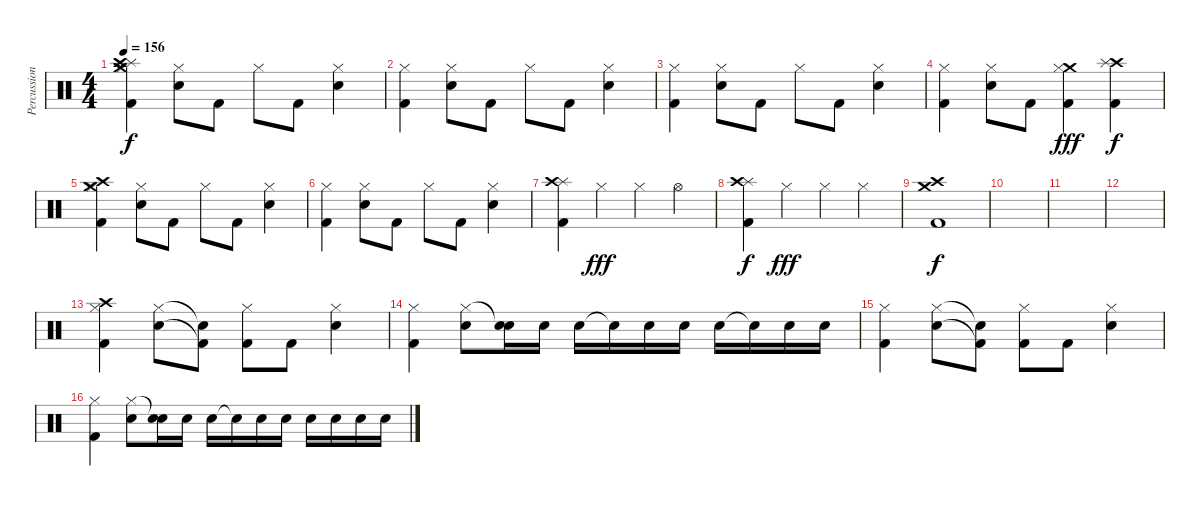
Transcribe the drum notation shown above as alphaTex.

\track ("Percussion" "Percussion") {instrument percussion}
\staff {score}
\articulation defaults
\ts (4 4)
\tempo 156
\clef neutral
\ks c
("Crash medium (hit)" "Splash (hit)" "Hi-Hat (closed)" "Kick (hit) 2" "Crash high (hit)").4{dy f} ("Hi-Hat (closed)" "Electric Snare (hit)").8 "Kick (hit) 2".8 "Hi-Hat (closed)".8 "Kick (hit) 2".8 ("Hi-Hat (closed)" "Electric Snare (hit)").4 |
("Hi-Hat (closed)" "Kick (hit) 2").4 ("Hi-Hat (closed)" "Electric Snare (hit)").8 "Kick (hit) 2".8 "Hi-Hat (closed)".8 "Kick (hit) 2".8 ("Hi-Hat (closed)" "Electric Snare (hit)").4 |
("Hi-Hat (closed)" "Kick (hit) 2").4 ("Hi-Hat (closed)" "Electric Snare (hit)").8 "Kick (hit) 2".8 "Hi-Hat (closed)".8 "Kick (hit) 2".8 ("Hi-Hat (closed)" "Electric Snare (hit)").4 |
("Hi-Hat (closed)" "Kick (hit) 2").4 ("Hi-Hat (closed)" "Electric Snare (hit)").8 "Kick (hit) 2".8 ("Crash medium (hit)" "Hi-Hat (closed)" "Kick (hit) 2").4{dy fff} ("Crash high (hit)" "Splash (hit)" "Kick (hit) 2").4{dy f} |
("Crash medium (hit)" "Hi-Hat (closed)" "Kick (hit) 2" "Crash high (hit)").4 ("Hi-Hat (closed)" "Electric Snare (hit)").8 "Kick (hit) 2".8 "Hi-Hat (closed)".8 "Kick (hit) 2".8 ("Hi-Hat (closed)" "Electric Snare (hit)").4 |
("Hi-Hat (closed)" "Kick (hit) 2").4 ("Hi-Hat (closed)" "Electric Snare (hit)").8 "Kick (hit) 2".8 "Hi-Hat (closed)".8 "Kick (hit) 2".8 ("Hi-Hat (closed)" "Electric Snare (hit)").4 |
("Splash (hit)" "Crash high (hit)" "Kick (hit) 2").4 "Hi-Hat (closed)".4{dy fff} "Hi-Hat (closed)".4 "Hi-Hat (open)".4 |
("Splash (hit)" "Crash high (hit)" "Kick (hit) 2").4{dy f} "Hi-Hat (closed)".4{dy fff} "Hi-Hat (closed)".4 "Hi-Hat (closed)".4 |
("Crash high (hit)" "Kick (hit) 2" "Crash medium (hit)").1{dy f} |
|
|
|
("Crash high (hit)" "Hi-Hat (closed)" "Kick (hit) 2").4 ("Hi-Hat (closed)" "Electric Snare (hit)").8 ("Snare (hit)"{t} "Kick (hit) 2"{t}).8 ("Hi-Hat (closed)" "Kick (hit) 2").8 "Kick (hit) 2".8 ("Hi-Hat (closed)" "Electric Snare (hit)").4 |
("Hi-Hat (closed)" "Kick (hit) 2").4 ("Hi-Hat (closed)" "Electric Snare (hit)").8 ("Snare (hit)"{t} "Electric Snare (hit)").16 "Electric Snare (hit)".16 "Electric Snare (hit)".16 "Electric Snare (hit)"{t}.16 "Electric Snare (hit)".16 "Electric Snare (hit)".16 "Electric Snare (hit)".16 "Electric Snare (hit)"{t}.16 "Electric Snare (hit)".16 "Electric Snare (hit)".16 |
("Hi-Hat (closed)" "Kick (hit) 2").4 ("Hi-Hat (closed)" "Electric Snare (hit)").8 ("Snare (hit)"{t} "Kick (hit) 2"{t}).8 ("Hi-Hat (closed)" "Kick (hit) 2").8 "Kick (hit) 2".8 ("Hi-Hat (closed)" "Electric Snare (hit)").4 |
("Hi-Hat (closed)" "Kick (hit) 2").4 ("Hi-Hat (closed)" "Electric Snare (hit)").8 ("Snare (hit)"{t} "Electric Snare (hit)").16 "Electric Snare (hit)".16 "Electric Snare (hit)".16 "Electric Snare (hit)"{t}.16 "Electric Snare (hit)".16 "Electric Snare (hit)".16 "Electric Snare (hit)".16 "Electric Snare (hit)".16 "Electric Snare (hit)".16 "Electric Snare (hit)".16
